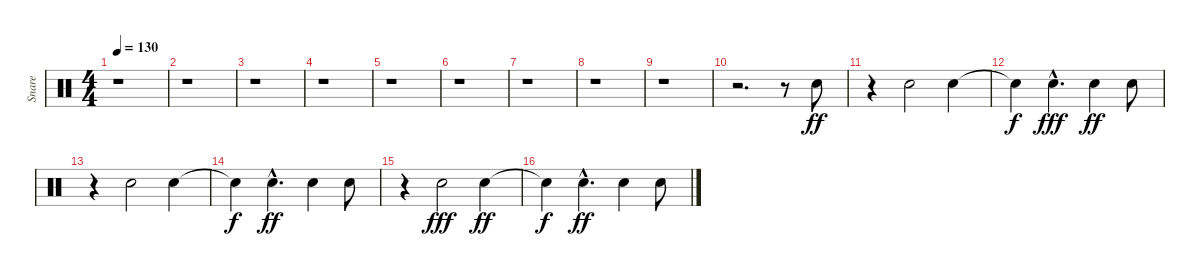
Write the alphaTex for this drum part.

\track ("Snare" "Snare") {instrument percussion}
\staff {score}
\articulation defaults
\ts (4 4)
\tempo 130
\clef neutral
\ks c
r.1{dy ff} |
r.1 |
r.1 |
r.1 |
r.1 |
r.1 |
r.1 |
r.1 |
r.1 |
r.2{d} r.8 "Snare (hit) 2".8 |
r.4 "Snare (hit) 2".2 "Snare (hit) 2".4 |
"Snare (hit)"{t}.4{dy f} "Snare (hit) 2"{hac}.4{d dy fff} "Snare (hit) 2".4{dy ff} "Snare (hit) 2".8 |
r.4 "Snare (hit) 2".2 "Snare (hit) 2".4 |
"Snare (hit)"{t}.4{dy f} "Snare (hit) 2"{hac}.4{d dy ff} "Snare (hit) 2".4 "Snare (hit) 2".8 |
r.4 "Snare (hit) 2".2{dy fff} "Snare (hit) 2".4{dy ff} |
"Snare (hit)"{t}.4{dy f} "Snare (hit) 2"{hac}.4{d dy ff} "Snare (hit) 2".4 "Snare (hit) 2".8
